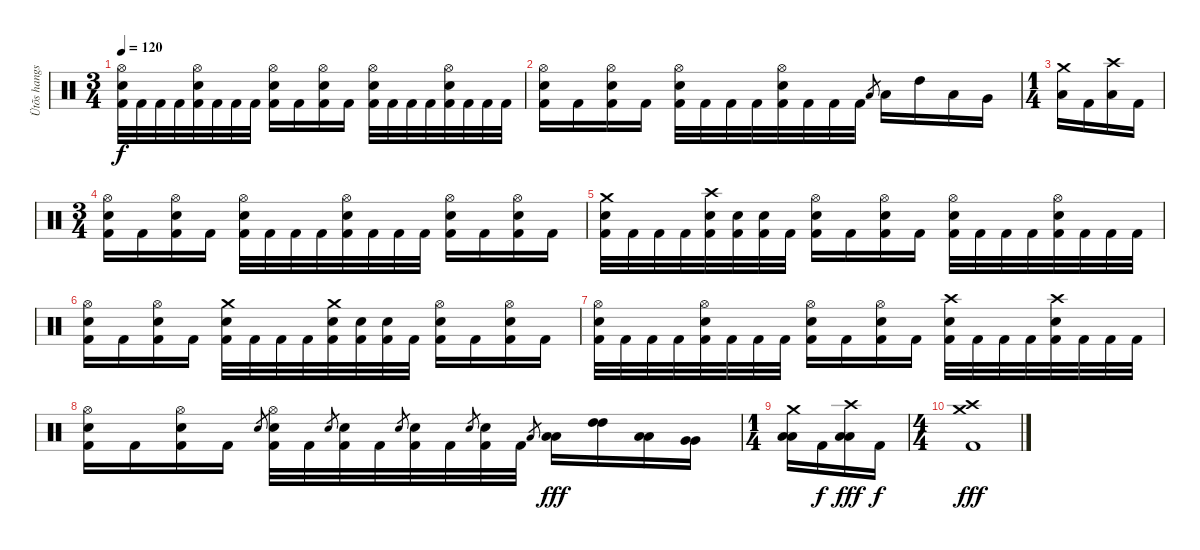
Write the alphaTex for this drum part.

\track ("Ütõs hangszer" "Ütõs hangs") {instrument percussion}
\staff {score}
\articulation defaults
\ts (3 4)
\tempo 120
\clef neutral
\ks c
("Hi-Hat (open)" "Electric Snare (hit)" "Kick (hit) 2").32{dy f} "Kick (hit) 2".32 "Kick (hit) 2".32 "Kick (hit) 2".32 ("Hi-Hat (open)" "Electric Snare (hit)" "Kick (hit) 2").32 "Kick (hit) 2".32 "Kick (hit) 2".32 "Kick (hit) 2".32 ("Hi-Hat (open)" "Electric Snare (hit)" "Kick (hit) 2").16 "Kick (hit) 2".16 ("Hi-Hat (open)" "Electric Snare (hit)" "Kick (hit) 2").16 "Kick (hit) 2".16 ("Hi-Hat (open)" "Electric Snare (hit)" "Kick (hit) 2").32 "Kick (hit) 2".32 "Kick (hit) 2".32 "Kick (hit) 2".32 ("Hi-Hat (open)" "Electric Snare (hit)" "Kick (hit) 2").32 "Kick (hit) 2".32 "Kick (hit) 2".32 "Kick (hit) 2".32 |
("Hi-Hat (open)" "Electric Snare (hit)" "Kick (hit) 2").16 "Kick (hit) 2".16 ("Hi-Hat (open)" "Electric Snare (hit)" "Kick (hit) 2").16 "Kick (hit) 2".16 ("Hi-Hat (open)" "Electric Snare (hit)" "Kick (hit) 2").32 "Kick (hit) 2".32 "Kick (hit) 2".32 "Kick (hit) 2".32 ("Hi-Hat (open)" "Electric Snare (hit)" "Kick (hit) 2").32 "Kick (hit) 2".32 "Kick (hit) 2".32 "Kick (hit) 2".32 "Low Tom (hit)".8{gr} "Low Tom (hit)".16 "High Tom (hit)".16 "Low Tom (hit)".16 "Very Low Tom (hit)".16 |
\ts (1 4)
("Crash medium (hit)" "Low Floor Tom (hit)").16 "Kick (hit) 2".16 ("Crash high (hit)" "Low Floor Tom (hit)").16 "Kick (hit) 2".16 |
\ts (3 4)
("Hi-Hat (open)" "Electric Snare (hit)" "Kick (hit) 2").16 "Kick (hit) 2".16 ("Hi-Hat (open)" "Electric Snare (hit)" "Kick (hit) 2").16 "Kick (hit) 2".16 ("Hi-Hat (open)" "Electric Snare (hit)" "Kick (hit) 2").32 "Kick (hit) 2".32 "Kick (hit) 2".32 "Kick (hit) 2".32 ("Hi-Hat (open)" "Electric Snare (hit)" "Kick (hit) 2").32 "Kick (hit) 2".32 "Kick (hit) 2".32 "Kick (hit) 2".32 ("Hi-Hat (open)" "Electric Snare (hit)" "Kick (hit) 2").16 "Kick (hit) 2".16 ("Hi-Hat (open)" "Electric Snare (hit)" "Kick (hit) 2").16 "Kick (hit) 2".16 |
("Crash medium (hit)" "Electric Snare (hit)" "Kick (hit) 2").32 "Kick (hit) 2".32 "Kick (hit) 2".32 "Kick (hit) 2".32 ("Crash high (hit)" "Electric Snare (hit)" "Kick (hit) 2").32 ("Electric Snare (hit)" "Kick (hit) 2").32 ("Electric Snare (hit)" "Kick (hit) 2").32 "Kick (hit) 2".32 ("Hi-Hat (open)" "Electric Snare (hit)" "Kick (hit) 2").16 "Kick (hit) 2".16 ("Hi-Hat (open)" "Electric Snare (hit)" "Kick (hit) 2").16 "Kick (hit) 2".16 ("Hi-Hat (open)" "Electric Snare (hit)" "Kick (hit) 2").32 "Kick (hit) 2".32 "Kick (hit) 2".32 "Kick (hit) 2".32 ("Hi-Hat (open)" "Electric Snare (hit)" "Kick (hit) 2").32 "Kick (hit) 2".32 "Kick (hit) 2".32 "Kick (hit) 2".32 |
("Hi-Hat (open)" "Electric Snare (hit)" "Kick (hit) 2").16 "Kick (hit) 2".16 ("Hi-Hat (open)" "Electric Snare (hit)" "Kick (hit) 2").16 "Kick (hit) 2".16 ("Crash medium (hit)" "Electric Snare (hit)" "Kick (hit) 2").32 "Kick (hit) 2".32 "Kick (hit) 2".32 "Kick (hit) 2".32 ("Crash medium (hit)" "Electric Snare (hit)" "Kick (hit) 2").32 ("Electric Snare (hit)" "Kick (hit) 2").32 ("Electric Snare (hit)" "Kick (hit) 2").32 "Kick (hit) 2".32 ("Hi-Hat (open)" "Electric Snare (hit)" "Kick (hit) 2").16 "Kick (hit) 2".16 ("Hi-Hat (open)" "Electric Snare (hit)" "Kick (hit) 2").16 "Kick (hit) 2".16 |
("Hi-Hat (open)" "Electric Snare (hit)" "Kick (hit) 2").32 "Kick (hit) 2".32 "Kick (hit) 2".32 "Kick (hit) 2".32 ("Hi-Hat (open)" "Electric Snare (hit)" "Kick (hit) 2").32 "Kick (hit) 2".32 "Kick (hit) 2".32 "Kick (hit) 2".32 ("Hi-Hat (open)" "Electric Snare (hit)" "Kick (hit) 2").16 "Kick (hit) 2".16 ("Hi-Hat (open)" "Electric Snare (hit)" "Kick (hit) 2").16 "Kick (hit) 2".16 ("Crash high (hit)" "Electric Snare (hit)" "Kick (hit) 2").32 "Kick (hit) 2".32 "Kick (hit) 2".32 "Kick (hit) 2".32 ("Crash high (hit)" "Electric Snare (hit)" "Kick (hit) 2").32 "Kick (hit) 2".32 "Kick (hit) 2".32 "Kick (hit) 2".32 |
("Hi-Hat (open)" "Electric Snare (hit)" "Kick (hit) 2").16 "Kick (hit) 2".16 ("Hi-Hat (open)" "Electric Snare (hit)" "Kick (hit) 2").16 "Kick (hit) 2".16 "Electric Snare (hit)".8{gr} ("Hi-Hat (open)" "Electric Snare (hit)" "Kick (hit) 2").32 "Kick (hit) 2".32 "Electric Snare (hit)".8{gr} ("Electric Snare (hit)" "Kick (hit) 2").32 "Kick (hit) 2".32 "Electric Snare (hit)".8{gr} ("Electric Snare (hit)" "Kick (hit) 2").32 "Kick (hit) 2".32 "Electric Snare (hit)".8{gr} ("Electric Snare (hit)" "Kick (hit) 2").32 "Kick (hit) 2".32 "Low Tom (hit)".8{gr} ("Low Tom (hit)" "Low Tom (hit)").16{dy fff} ("High Tom (hit)" "High Tom (hit)").16 ("Low Tom (hit)" "Low Tom (hit)").16 ("Very Low Tom (hit)" "Very Low Tom (hit)").16 |
\ts (1 4)
("Crash medium (hit)" "Low Floor Tom (hit)" "Low Floor Tom (hit)").16 "Kick (hit) 2".16{dy f} ("Crash high (hit)" "Low Floor Tom (hit)" "Low Floor Tom (hit)").16{dy fff} "Kick (hit) 2".16{dy f} |
\ts (4 4)
("Crash medium (hit)" "Crash high (hit)" "Kick (hit) 2").1{dy fff}
